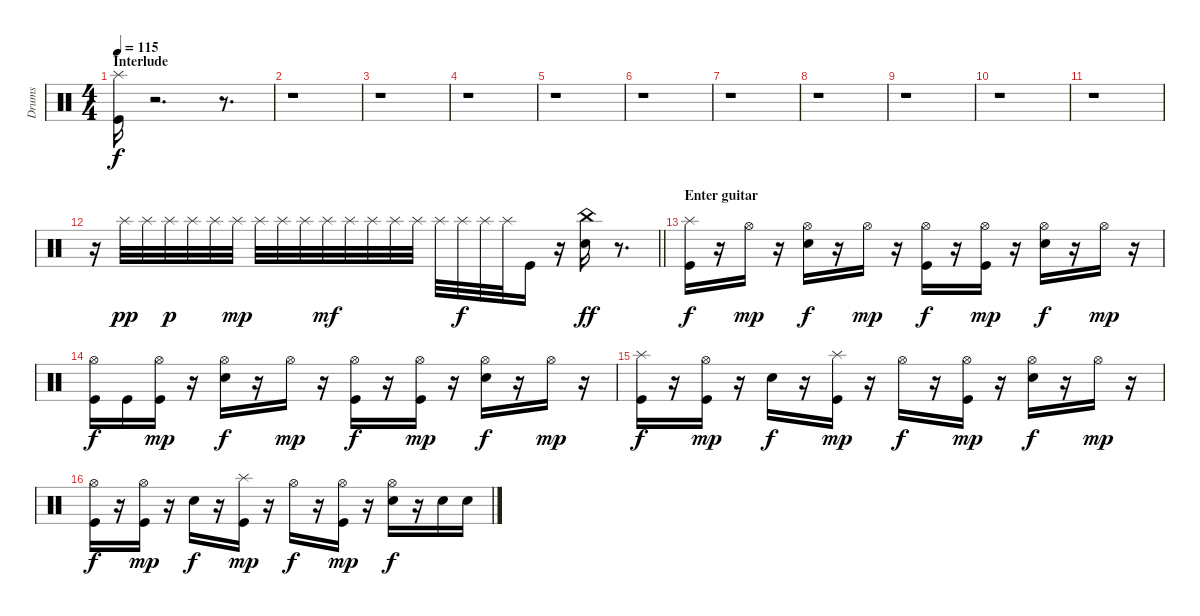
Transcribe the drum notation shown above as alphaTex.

\track ("Drums" "Drums") {instrument percussion}
\staff {score}
\articulation defaults
\ts (4 4)
\section ("" "Interlude")
\tempo 115
\clef neutral
\ks c
("Splash (hit)" "Kick (hit)").16{dy f} r.2{d} r.8{d} |
r.1 |
r.1 |
r.1 |
r.1 |
r.1 |
r.1 |
r.1 |
r.1 |
r.1 |
r.1 |
\barLineRight lightlight
r.16 "Splash (hit)".32{dy pp} "Splash (hit)".32 "Splash (hit)".32{dy p} "Splash (hit)".32 "Splash (hit)".32 "Splash (hit)".32{dy mp} "Splash (hit)".32 "Splash (hit)".32 "Splash (hit)".32 "Splash (hit)".32{dy mf} "Splash (hit)".32 "Splash (hit)".32 "Splash (hit)".32 "Splash (hit)".32 "Splash (hit)".32 "Splash (hit)".32{dy f} "Splash (hit)".32 "Splash (hit)".32 "Kick (hit)".16 r.16 ("China (hit)" "Electric Snare (hit)").16{dy ff} r.8{d} |
\section ("" "Enter guitar")
("Splash (hit)" "Kick (hit)").16{dy f} r.16 "Hi-Hat (open)".16{dy mp} r.16 ("Hi-Hat (open)" "Electric Snare (hit)").16{dy f} r.16 "Hi-Hat (open)".16{dy mp} r.16 ("Hi-Hat (open)" "Kick (hit)").16{dy f} r.16 ("Kick (hit)" "Hi-Hat (open)").16{dy mp} r.16 ("Hi-Hat (open)" "Electric Snare (hit)").16{dy f} r.16 "Hi-Hat (open)".16{dy mp} r.16 |
("Hi-Hat (open)" "Kick (hit)").16{dy f} "Kick (hit)".16 ("Kick (hit)" "Hi-Hat (open)").16{dy mp} r.16 ("Hi-Hat (open)" "Electric Snare (hit)").16{dy f} r.16 "Hi-Hat (open)".16{dy mp} r.16 ("Hi-Hat (open)" "Kick (hit)").16{dy f} r.16 ("Kick (hit)" "Hi-Hat (open)").16{dy mp} r.16 ("Hi-Hat (open)" "Electric Snare (hit)").16{dy f} r.16 "Hi-Hat (open)".16{dy mp} r.16 |
("Splash (hit)" "Kick (hit)").16{dy f} r.16 ("Kick (hit)" "Hi-Hat (open)").16{dy mp} r.16 "Electric Snare (hit)".16{dy f} r.16 ("Splash (hit)" "Kick (hit)").16{dy mp} r.16 "Hi-Hat (open)".16{dy f} r.16 ("Kick (hit)" "Hi-Hat (open)").16{dy mp} r.16 ("Hi-Hat (open)" "Electric Snare (hit)").16{dy f} r.16 "Hi-Hat (open)".16{dy mp} r.16 |
("Hi-Hat (open)" "Kick (hit)").16{dy f} r.16 ("Kick (hit)" "Hi-Hat (open)").16{dy mp} r.16 "Electric Snare (hit)".16{dy f} r.16 ("Splash (hit)" "Kick (hit)").16{dy mp} r.16 "Hi-Hat (open)".16{dy f} r.16 ("Kick (hit)" "Hi-Hat (open)").16{dy mp} r.16 ("Hi-Hat (open)" "Electric Snare (hit)").16{dy f} r.16 "Electric Snare (hit)".16 "Electric Snare (hit)".16
